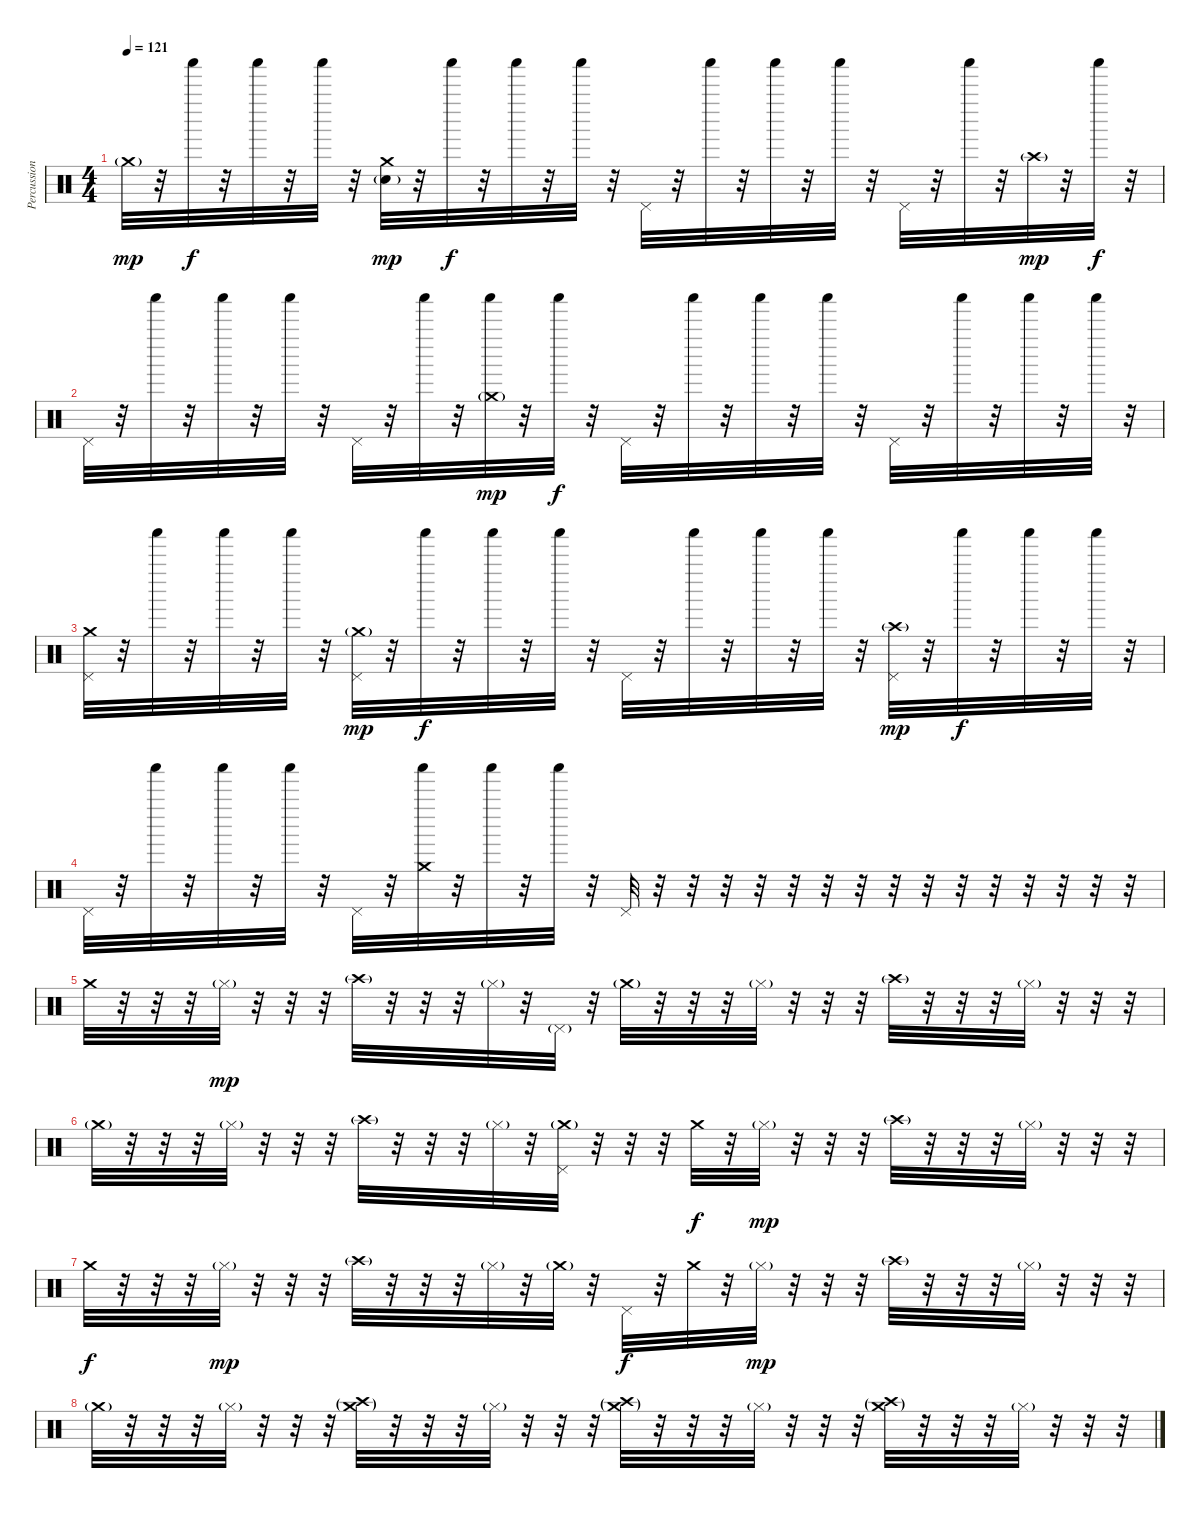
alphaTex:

\track ("Percussions" "Percussion") {instrument percussion}
\staff {score}
\articulation defaults
\ts (4 4)
\tempo 121
\clef neutral
\ks c "Crash medium (hit)"{g}.32{dy mp}
r.32 "Shaker (hit)".32{dy f} r.32 "Shaker (hit)".32 r.32 "Shaker (hit)".32 r.32 ("Crash medium (hit)" "Electric Snare (hit)"{g}).32{dy mp} r.32 "Shaker (hit)".32{dy f} r.32 "Shaker (hit)".32 r.32 "Shaker (hit)".32 r.32 "Pedal Hi-Hat (hit)".32 r.32 "Shaker (hit)".32 r.32 "Shaker (hit)".32 r.32 "Shaker (hit)".32 r.32 "Pedal Hi-Hat (hit)".32 r.32 "Shaker (hit)".32 r.32 "Crash high (hit)"{g}.32{dy mp} r.32 "Shaker (hit)".32{dy f} r.32 |
"Pedal Hi-Hat (hit)".32 r.32 "Shaker (hit)".32 r.32 "Shaker (hit)".32 r.32 "Shaker (hit)".32 r.32 "Pedal Hi-Hat (hit)".32 r.32 "Shaker (hit)".32 r.32 ("Shaker (hit)" "Crash medium (hit)"{g}).32{dy mp} r.32 "Shaker (hit)".32{dy f} r.32 "Pedal Hi-Hat (hit)".32 r.32 "Shaker (hit)".32 r.32 "Shaker (hit)".32 r.32 "Shaker (hit)".32 r.32 "Pedal Hi-Hat (hit)".32 r.32 "Shaker (hit)".32 r.32 "Shaker (hit)".32 r.32 "Shaker (hit)".32 r.32 |
("Pedal Hi-Hat (hit)" "Crash medium (hit)").32 r.32 "Shaker (hit)".32 r.32 "Shaker (hit)".32 r.32 "Shaker (hit)".32 r.32 ("Pedal Hi-Hat (hit)" "Crash medium (hit)"{g}).32{dy mp} r.32 "Shaker (hit)".32{dy f} r.32 "Shaker (hit)".32 r.32 "Shaker (hit)".32 r.32 "Pedal Hi-Hat (hit)".32 r.32 "Shaker (hit)".32 r.32 "Shaker (hit)".32 r.32 "Shaker (hit)".32 r.32 ("Pedal Hi-Hat (hit)" "Crash high (hit)"{g}).32{dy mp} r.32 "Shaker (hit)".32{dy f} r.32 "Shaker (hit)".32 r.32 "Shaker (hit)".32 r.32 |
"Pedal Hi-Hat (hit)".32 r.32 "Shaker (hit)".32 r.32 "Shaker (hit)".32 r.32 "Shaker (hit)".32 r.32 "Pedal Hi-Hat (hit)".32 r.32 ("Shaker (hit)" "Crash medium (hit)").32 r.32 "Shaker (hit)".32 r.32 "Shaker (hit)".32 r.32 "Pedal Hi-Hat (hit)".32 r.32 r.32 r.32 r.32 r.32 r.32 r.32 r.32 r.32 r.32 r.32 r.32 r.32 r.32 r.32 |
"Crash medium (hit)".32 r.32 r.32 r.32 "Hi-Hat (closed)"{g}.32{dy mp} r.32 r.32 r.32 "Crash high (hit)"{g}.32 r.32 r.32 r.32 "Hi-Hat (closed)"{g}.32 r.32 "Pedal Hi-Hat (hit)"{g}.32 r.32 "Crash medium (hit)"{g}.32 r.32 r.32 r.32 "Hi-Hat (closed)"{g}.32 r.32 r.32 r.32 "Crash high (hit)"{g}.32 r.32 r.32 r.32 "Hi-Hat (closed)"{g}.32 r.32 r.32 r.32 |
"Crash medium (hit)"{g}.32 r.32 r.32 r.32 "Hi-Hat (closed)"{g}.32 r.32 r.32 r.32 "Crash high (hit)"{g}.32 r.32 r.32 r.32 "Hi-Hat (closed)"{g}.32 r.32 ("Pedal Hi-Hat (hit)" "Crash medium (hit)"{g}).32 r.32 r.32 r.32 "Crash medium (hit)".32{dy f} r.32 "Hi-Hat (closed)"{g}.32{dy mp} r.32 r.32 r.32 "Crash high (hit)"{g}.32 r.32 r.32 r.32 "Hi-Hat (closed)"{g}.32 r.32 r.32 r.32 |
"Crash medium (hit)".32{dy f} r.32 r.32 r.32 "Hi-Hat (closed)"{g}.32{dy mp} r.32 r.32 r.32 "Crash high (hit)"{g}.32 r.32 r.32 r.32 "Hi-Hat (closed)"{g}.32 r.32 "Crash medium (hit)"{g}.32 r.32 "Pedal Hi-Hat (hit)".32{dy f} r.32 "Crash medium (hit)".32 r.32 "Hi-Hat (closed)"{g}.32{dy mp} r.32 r.32 r.32 "Crash high (hit)"{g}.32 r.32 r.32 r.32 "Hi-Hat (closed)"{g}.32 r.32 r.32 r.32 |
"Crash medium (hit)"{g}.32 r.32 r.32 r.32 "Hi-Hat (closed)"{g}.32 r.32 r.32 r.32 ("Crash medium (hit)"{g} "Crash high (hit)"{g}).32 r.32 r.32 r.32 "Hi-Hat (closed)"{g}.32 r.32 r.32 r.32 ("Crash medium (hit)"{g} "Crash high (hit)"{g}).32 r.32 r.32 r.32 "Hi-Hat (closed)"{g}.32 r.32 r.32 r.32 ("Crash medium (hit)"{g} "Crash high (hit)"{g}).32 r.32 r.32 r.32 "Hi-Hat (closed)"{g}.32 r.32 r.32 r.32
